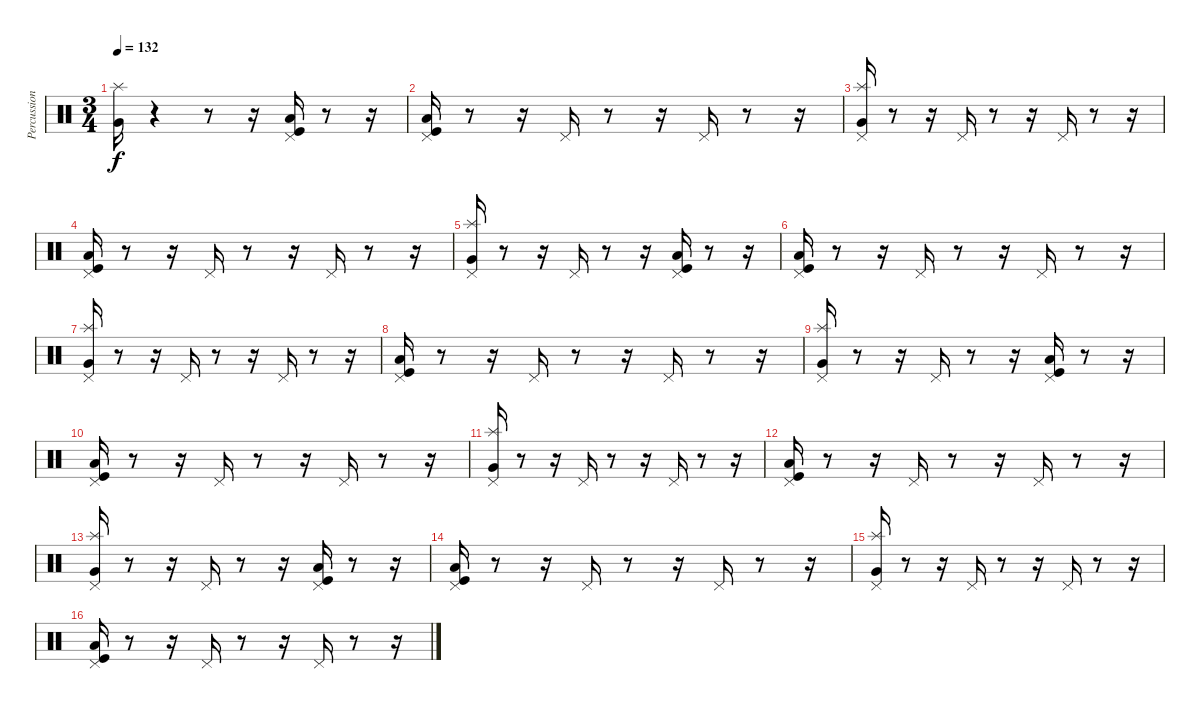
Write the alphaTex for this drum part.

\track ("Percussion" "Percussion") {instrument percussion}
\staff {score}
\articulation defaults
\ts (3 4)
\tempo 132
\clef neutral
\ks c
("Very Low Tom (hit)" "Splash (hit)").16{dy f} r.4 r.8 r.16 ("Low Floor Tom (hit)" "Pedal Hi-Hat (hit)" "Kick (hit)").16 r.8 r.16 |
("Low Floor Tom (hit)" "Pedal Hi-Hat (hit)" "Kick (hit)").16 r.8 r.16 "Pedal Hi-Hat (hit)".16 r.8 r.16 "Pedal Hi-Hat (hit)".16 r.8 r.16 |
("Pedal Hi-Hat (hit)" "Very Low Tom (hit)" "Splash (hit)").16 r.8 r.16 "Pedal Hi-Hat (hit)".16 r.8 r.16 "Pedal Hi-Hat (hit)".16 r.8 r.16 |
("Low Floor Tom (hit)" "Pedal Hi-Hat (hit)" "Kick (hit)").16 r.8 r.16 "Pedal Hi-Hat (hit)".16 r.8 r.16 "Pedal Hi-Hat (hit)".16 r.8 r.16 |
("Pedal Hi-Hat (hit)" "Very Low Tom (hit)" "Splash (hit)").16 r.8 r.16 "Pedal Hi-Hat (hit)".16 r.8 r.16 ("Pedal Hi-Hat (hit)" "Low Floor Tom (hit)" "Kick (hit)").16 r.8 r.16 |
("Low Floor Tom (hit)" "Pedal Hi-Hat (hit)" "Kick (hit)").16 r.8 r.16 "Pedal Hi-Hat (hit)".16 r.8 r.16 "Pedal Hi-Hat (hit)".16 r.8 r.16 |
("Pedal Hi-Hat (hit)" "Very Low Tom (hit)" "Splash (hit)").16 r.8 r.16 "Pedal Hi-Hat (hit)".16 r.8 r.16 "Pedal Hi-Hat (hit)".16 r.8 r.16 |
("Low Floor Tom (hit)" "Pedal Hi-Hat (hit)" "Kick (hit)").16 r.8 r.16 "Pedal Hi-Hat (hit)".16 r.8 r.16 "Pedal Hi-Hat (hit)".16 r.8 r.16 |
("Pedal Hi-Hat (hit)" "Very Low Tom (hit)" "Splash (hit)").16 r.8 r.16 "Pedal Hi-Hat (hit)".16 r.8 r.16 ("Pedal Hi-Hat (hit)" "Low Floor Tom (hit)" "Kick (hit)").16 r.8 r.16 |
("Low Floor Tom (hit)" "Pedal Hi-Hat (hit)" "Kick (hit)").16 r.8 r.16 "Pedal Hi-Hat (hit)".16 r.8 r.16 "Pedal Hi-Hat (hit)".16 r.8 r.16 |
("Pedal Hi-Hat (hit)" "Very Low Tom (hit)" "Splash (hit)").16 r.8 r.16 "Pedal Hi-Hat (hit)".16 r.8 r.16 "Pedal Hi-Hat (hit)".16 r.8 r.16 |
("Low Floor Tom (hit)" "Pedal Hi-Hat (hit)" "Kick (hit)").16 r.8 r.16 "Pedal Hi-Hat (hit)".16 r.8 r.16 "Pedal Hi-Hat (hit)".16 r.8 r.16 |
("Pedal Hi-Hat (hit)" "Very Low Tom (hit)" "Splash (hit)").16 r.8 r.16 "Pedal Hi-Hat (hit)".16 r.8 r.16 ("Pedal Hi-Hat (hit)" "Low Floor Tom (hit)" "Kick (hit)").16 r.8 r.16 |
("Low Floor Tom (hit)" "Pedal Hi-Hat (hit)" "Kick (hit)").16 r.8 r.16 "Pedal Hi-Hat (hit)".16 r.8 r.16 "Pedal Hi-Hat (hit)".16 r.8 r.16 |
("Pedal Hi-Hat (hit)" "Very Low Tom (hit)" "Splash (hit)").16 r.8 r.16 "Pedal Hi-Hat (hit)".16 r.8 r.16 "Pedal Hi-Hat (hit)".16 r.8 r.16 |
("Low Floor Tom (hit)" "Pedal Hi-Hat (hit)" "Kick (hit)").16 r.8 r.16 "Pedal Hi-Hat (hit)".16 r.8 r.16 "Pedal Hi-Hat (hit)".16 r.8 r.16
